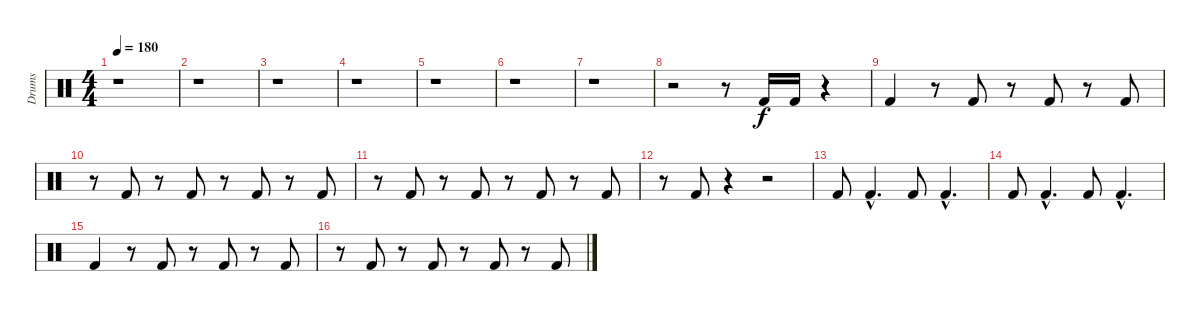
\track ("Drums" "Drums") {instrument percussion}
\staff {score}
\articulation defaults
\ts (4 4)
\tempo 180
\clef neutral
\ks c
r.1{dy f} |
r.1 |
r.1 |
r.1 |
r.1 |
r.1 |
r.1 |
r.2 r.8 "Kick (hit) 2".16 "Kick (hit) 2".16 r.4 |
"Kick (hit) 2".4 r.8 "Kick (hit) 2".8 r.8 "Kick (hit) 2".8 r.8 "Kick (hit) 2".8 |
r.8 "Kick (hit) 2".8 r.8 "Kick (hit) 2".8 r.8 "Kick (hit) 2".8 r.8 "Kick (hit) 2".8 |
r.8 "Kick (hit) 2".8 r.8 "Kick (hit) 2".8 r.8 "Kick (hit) 2".8 r.8 "Kick (hit) 2".8 |
r.8 "Kick (hit) 2".8 r.4 r.2 |
"Kick (hit) 2".8 "Kick (hit) 2"{hac}.4{d} "Kick (hit) 2".8 "Kick (hit) 2"{hac}.4{d} |
"Kick (hit) 2".8 "Kick (hit) 2"{hac}.4{d} "Kick (hit) 2".8 "Kick (hit) 2"{hac}.4{d} |
"Kick (hit) 2".4 r.8 "Kick (hit) 2".8 r.8 "Kick (hit) 2".8 r.8 "Kick (hit) 2".8 |
r.8 "Kick (hit) 2".8 r.8 "Kick (hit) 2".8 r.8 "Kick (hit) 2".8 r.8 "Kick (hit) 2".8
